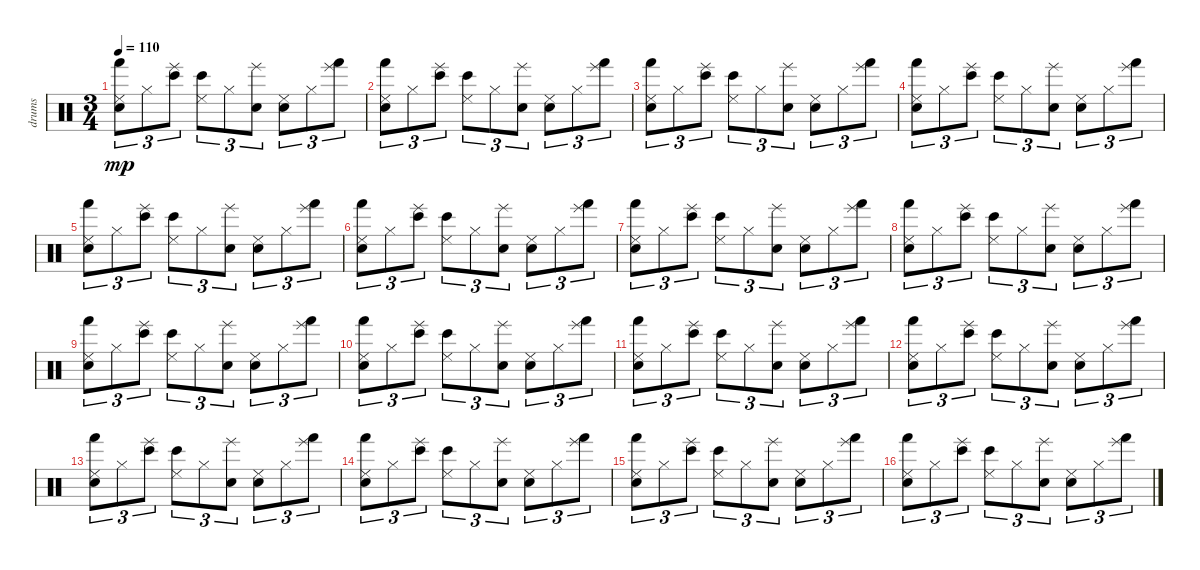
\track ("drums" "drums") {instrument percussion}
\staff {score}
\articulation defaults
\ts (3 4)
\tempo 110
\clef neutral
\ks c
("Snare (hit)" "Hand (hit)" "Cowbell low (tip)").8{tu (3 2) dy mp} "Cowbell high (tip)".8{tu (3 2)} ("Bongo High (hit)" "Hand (slap)").8{tu (3 2)} ("Bongo High (hit)" "Cowbell low (tip)").8{tu (3 2)} "Cowbell high (tip)".8{tu (3 2)} ("Electric Snare (hit)" "Hand (slap)").8{tu (3 2)} ("Electric Snare (hit)" "Cowbell low (tip)").8{tu (3 2)} "Cowbell high (tip)".8{tu (3 2)} ("Hand (hit)" "Hand (slap)").8{tu (3 2)} |
("Snare (hit)" "Hand (hit)" "Cowbell low (tip)").8{tu (3 2)} "Cowbell high (tip)".8{tu (3 2)} ("Bongo High (hit)" "Hand (slap)").8{tu (3 2)} ("Bongo High (hit)" "Cowbell low (tip)").8{tu (3 2)} "Cowbell high (tip)".8{tu (3 2)} ("Electric Snare (hit)" "Hand (slap)").8{tu (3 2)} ("Electric Snare (hit)" "Cowbell low (tip)").8{tu (3 2)} "Cowbell high (tip)".8{tu (3 2)} ("Hand (hit)" "Hand (slap)").8{tu (3 2)} |
("Snare (hit)" "Hand (hit)" "Cowbell low (tip)").8{tu (3 2)} "Cowbell high (tip)".8{tu (3 2)} ("Bongo High (hit)" "Hand (slap)").8{tu (3 2)} ("Bongo High (hit)" "Cowbell low (tip)").8{tu (3 2)} "Cowbell high (tip)".8{tu (3 2)} ("Electric Snare (hit)" "Hand (slap)").8{tu (3 2)} ("Electric Snare (hit)" "Cowbell low (tip)").8{tu (3 2)} "Cowbell high (tip)".8{tu (3 2)} ("Hand (hit)" "Hand (slap)").8{tu (3 2)} |
("Snare (hit)" "Hand (hit)" "Cowbell low (tip)").8{tu (3 2)} "Cowbell high (tip)".8{tu (3 2)} ("Bongo High (hit)" "Hand (slap)").8{tu (3 2)} ("Bongo High (hit)" "Cowbell low (tip)").8{tu (3 2)} "Cowbell high (tip)".8{tu (3 2)} ("Electric Snare (hit)" "Hand (slap)").8{tu (3 2)} ("Electric Snare (hit)" "Cowbell low (tip)").8{tu (3 2)} "Cowbell high (tip)".8{tu (3 2)} ("Hand (hit)" "Hand (slap)").8{tu (3 2)} |
("Snare (hit)" "Hand (hit)" "Cowbell low (tip)").8{tu (3 2)} "Cowbell high (tip)".8{tu (3 2)} ("Bongo High (hit)" "Hand (slap)").8{tu (3 2)} ("Bongo High (hit)" "Cowbell low (tip)").8{tu (3 2)} "Cowbell high (tip)".8{tu (3 2)} ("Electric Snare (hit)" "Hand (slap)").8{tu (3 2)} ("Electric Snare (hit)" "Cowbell low (tip)").8{tu (3 2)} "Cowbell high (tip)".8{tu (3 2)} ("Hand (hit)" "Hand (slap)").8{tu (3 2)} |
("Snare (hit)" "Hand (hit)" "Cowbell low (tip)").8{tu (3 2)} "Cowbell high (tip)".8{tu (3 2)} ("Bongo High (hit)" "Hand (slap)").8{tu (3 2)} ("Bongo High (hit)" "Cowbell low (tip)").8{tu (3 2)} "Cowbell high (tip)".8{tu (3 2)} ("Electric Snare (hit)" "Hand (slap)").8{tu (3 2)} ("Electric Snare (hit)" "Cowbell low (tip)").8{tu (3 2)} "Cowbell high (tip)".8{tu (3 2)} ("Hand (hit)" "Hand (slap)").8{tu (3 2)} |
("Snare (hit)" "Hand (hit)" "Cowbell low (tip)").8{tu (3 2)} "Cowbell high (tip)".8{tu (3 2)} ("Bongo High (hit)" "Hand (slap)").8{tu (3 2)} ("Bongo High (hit)" "Cowbell low (tip)").8{tu (3 2)} "Cowbell high (tip)".8{tu (3 2)} ("Electric Snare (hit)" "Hand (slap)").8{tu (3 2)} ("Electric Snare (hit)" "Cowbell low (tip)").8{tu (3 2)} "Cowbell high (tip)".8{tu (3 2)} ("Hand (hit)" "Hand (slap)").8{tu (3 2)} |
("Snare (hit)" "Hand (hit)" "Cowbell low (tip)").8{tu (3 2)} "Cowbell high (tip)".8{tu (3 2)} ("Bongo High (hit)" "Hand (slap)").8{tu (3 2)} ("Bongo High (hit)" "Cowbell low (tip)").8{tu (3 2)} "Cowbell high (tip)".8{tu (3 2)} ("Electric Snare (hit)" "Hand (slap)").8{tu (3 2)} ("Electric Snare (hit)" "Cowbell low (tip)").8{tu (3 2)} "Cowbell high (tip)".8{tu (3 2)} ("Hand (hit)" "Hand (slap)").8{tu (3 2)} |
("Snare (hit)" "Hand (hit)" "Cowbell low (tip)").8{tu (3 2)} "Cowbell high (tip)".8{tu (3 2)} ("Bongo High (hit)" "Hand (slap)").8{tu (3 2)} ("Bongo High (hit)" "Cowbell low (tip)").8{tu (3 2)} "Cowbell high (tip)".8{tu (3 2)} ("Electric Snare (hit)" "Hand (slap)").8{tu (3 2)} ("Electric Snare (hit)" "Cowbell low (tip)").8{tu (3 2)} "Cowbell high (tip)".8{tu (3 2)} ("Hand (hit)" "Hand (slap)").8{tu (3 2)} |
("Snare (hit)" "Hand (hit)" "Cowbell low (tip)").8{tu (3 2)} "Cowbell high (tip)".8{tu (3 2)} ("Bongo High (hit)" "Hand (slap)").8{tu (3 2)} ("Bongo High (hit)" "Cowbell low (tip)").8{tu (3 2)} "Cowbell high (tip)".8{tu (3 2)} ("Electric Snare (hit)" "Hand (slap)").8{tu (3 2)} ("Electric Snare (hit)" "Cowbell low (tip)").8{tu (3 2)} "Cowbell high (tip)".8{tu (3 2)} ("Hand (hit)" "Hand (slap)").8{tu (3 2)} |
("Snare (hit)" "Hand (hit)" "Cowbell low (tip)").8{tu (3 2)} "Cowbell high (tip)".8{tu (3 2)} ("Bongo High (hit)" "Hand (slap)").8{tu (3 2)} ("Bongo High (hit)" "Cowbell low (tip)").8{tu (3 2)} "Cowbell high (tip)".8{tu (3 2)} ("Electric Snare (hit)" "Hand (slap)").8{tu (3 2)} ("Electric Snare (hit)" "Cowbell low (tip)").8{tu (3 2)} "Cowbell high (tip)".8{tu (3 2)} ("Hand (hit)" "Hand (slap)").8{tu (3 2)} |
("Snare (hit)" "Hand (hit)" "Cowbell low (tip)").8{tu (3 2)} "Cowbell high (tip)".8{tu (3 2)} ("Bongo High (hit)" "Hand (slap)").8{tu (3 2)} ("Bongo High (hit)" "Cowbell low (tip)").8{tu (3 2)} "Cowbell high (tip)".8{tu (3 2)} ("Electric Snare (hit)" "Hand (slap)").8{tu (3 2)} ("Electric Snare (hit)" "Cowbell low (tip)").8{tu (3 2)} "Cowbell high (tip)".8{tu (3 2)} ("Hand (hit)" "Hand (slap)").8{tu (3 2)} |
("Snare (hit)" "Hand (hit)" "Cowbell low (tip)").8{tu (3 2)} "Cowbell high (tip)".8{tu (3 2)} ("Bongo High (hit)" "Hand (slap)").8{tu (3 2)} ("Bongo High (hit)" "Cowbell low (tip)").8{tu (3 2)} "Cowbell high (tip)".8{tu (3 2)} ("Electric Snare (hit)" "Hand (slap)").8{tu (3 2)} ("Electric Snare (hit)" "Cowbell low (tip)").8{tu (3 2)} "Cowbell high (tip)".8{tu (3 2)} ("Hand (hit)" "Hand (slap)").8{tu (3 2)} |
("Snare (hit)" "Hand (hit)" "Cowbell low (tip)").8{tu (3 2) volume 11} "Cowbell high (tip)".8{tu (3 2)} ("Bongo High (hit)" "Hand (slap)").8{tu (3 2)} ("Bongo High (hit)" "Cowbell low (tip)").8{tu (3 2)} "Cowbell high (tip)".8{tu (3 2)} ("Electric Snare (hit)" "Hand (slap)").8{tu (3 2)} ("Electric Snare (hit)" "Cowbell low (tip)").8{tu (3 2)} "Cowbell high (tip)".8{tu (3 2)} ("Hand (hit)" "Hand (slap)").8{tu (3 2)} |
("Snare (hit)" "Hand (hit)" "Cowbell low (tip)").8{tu (3 2)} "Cowbell high (tip)".8{tu (3 2)} ("Bongo High (hit)" "Hand (slap)").8{tu (3 2)} ("Bongo High (hit)" "Cowbell low (tip)").8{tu (3 2)} "Cowbell high (tip)".8{tu (3 2)} ("Electric Snare (hit)" "Hand (slap)").8{tu (3 2)} ("Electric Snare (hit)" "Cowbell low (tip)").8{tu (3 2)} "Cowbell high (tip)".8{tu (3 2)} ("Hand (hit)" "Hand (slap)").8{tu (3 2)} |
("Snare (hit)" "Hand (hit)" "Cowbell low (tip)").8{tu (3 2)} "Cowbell high (tip)".8{tu (3 2)} ("Bongo High (hit)" "Hand (slap)").8{tu (3 2)} ("Bongo High (hit)" "Cowbell low (tip)").8{tu (3 2)} "Cowbell high (tip)".8{tu (3 2)} ("Electric Snare (hit)" "Hand (slap)").8{tu (3 2)} ("Electric Snare (hit)" "Cowbell low (tip)").8{tu (3 2)} "Cowbell high (tip)".8{tu (3 2)} ("Hand (hit)" "Hand (slap)").8{tu (3 2)}
